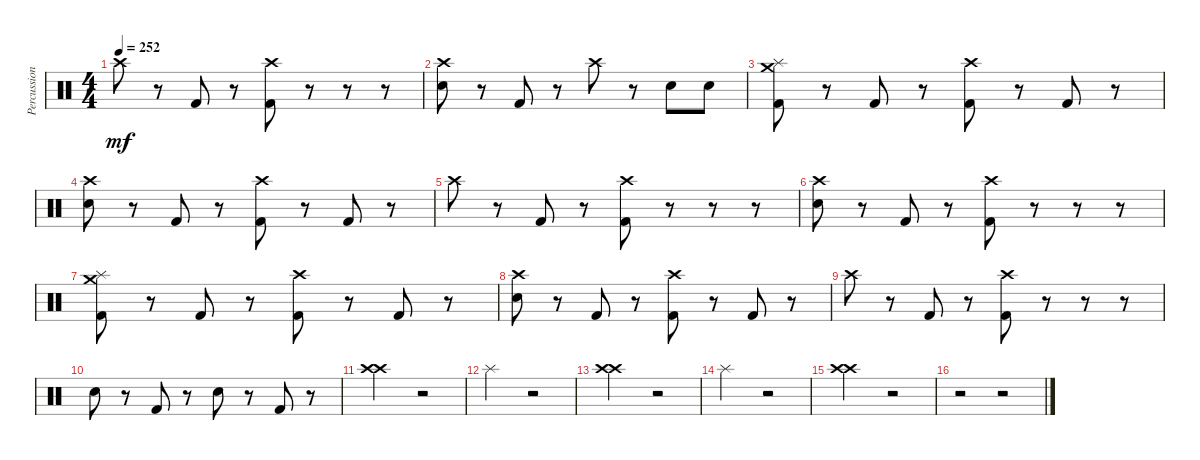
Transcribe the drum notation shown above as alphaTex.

\track ("Percussion" "Percussion") {instrument percussion}
\staff {score}
\articulation defaults
\ts (4 4)
\tempo 252
\clef neutral
\ks c "Crash high (hit)".8{dy mf}
r.8 "Kick (hit) 2".8 r.8 ("Kick (hit) 2" "Crash high (hit)").8 r.8 r.8 r.8 |
("Crash high (hit)" "Electric Snare (hit)").8 r.8 "Kick (hit) 2".8 r.8 "Crash high (hit)".8 r.8 "Electric Snare (hit)".8 "Electric Snare (hit)".8 |
("Kick (hit) 2" "Crash medium (hit)" "Splash (hit)").8 r.8 "Kick (hit) 2".8 r.8 ("Kick (hit) 2" "Crash high (hit)").8 r.8 "Kick (hit) 2".8 r.8 |
("Electric Snare (hit)" "Crash high (hit)").8 r.8 "Kick (hit) 2".8 r.8 ("Kick (hit) 2" "Crash high (hit)").8 r.8 "Kick (hit) 2".8 r.8 |
"Crash high (hit)".8 r.8 "Kick (hit) 2".8 r.8 ("Kick (hit) 2" "Crash high (hit)").8 r.8 r.8 r.8 |
("Electric Snare (hit)" "Crash high (hit)").8 r.8 "Kick (hit) 2".8 r.8 ("Kick (hit) 2" "Crash high (hit)").8 r.8 r.8 r.8 |
("Splash (hit)" "Crash medium (hit)" "Kick (hit) 2").8 r.8 "Kick (hit) 2".8 r.8 ("Kick (hit) 2" "Crash high (hit)").8 r.8 "Kick (hit) 2".8 r.8 |
("Electric Snare (hit)" "Crash high (hit)").8 r.8 "Kick (hit) 2".8 r.8 ("Kick (hit) 2" "Crash high (hit)").8 r.8 "Kick (hit) 2".8 r.8 |
"Crash high (hit)".8 r.8 "Kick (hit) 2".8 r.8 ("Kick (hit) 2" "Crash high (hit)").8 r.8 r.8 r.8 |
"Electric Snare (hit)".8 r.8 "Kick (hit) 2".8 r.8 "Electric Snare (hit)".8 r.8 "Kick (hit) 2".8 r.8 |
("Crash high (hit)" "Crash high (hit)").2 r.2 |
"Splash (hit)".2 r.2 |
("Crash high (hit)" "Crash high (hit)").2 r.2 |
"Splash (hit)".2 r.2 |
("Crash high (hit)" "Crash high (hit)").2 r.2 |
r.2 r.2
